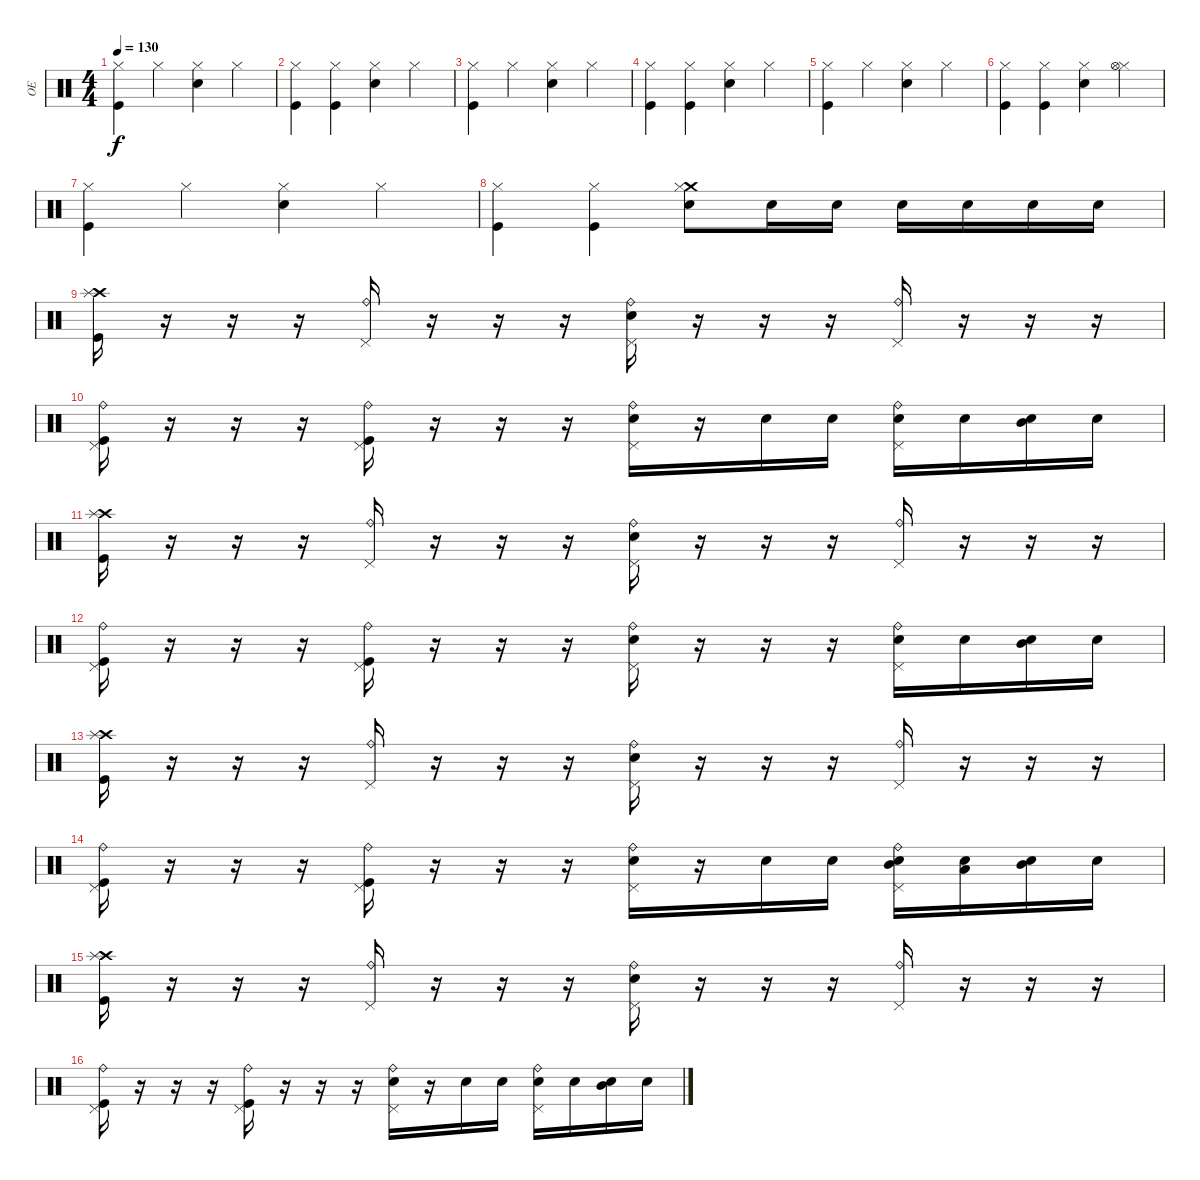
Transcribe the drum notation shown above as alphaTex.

\track ("OE" "OE") {instrument percussion}
\staff {score}
\articulation defaults
\ts (4 4)
\tempo 130
\clef neutral
\ks c
("Kick (hit)" "Hi-Hat (closed)").4{dy f} "Hi-Hat (closed)".4 ("Snare (hit) 2" "Hi-Hat (closed)").4 "Hi-Hat (closed)".4 |
("Kick (hit)" "Hi-Hat (closed)").4 ("Kick (hit)" "Hi-Hat (closed)").4 ("Snare (hit) 2" "Hi-Hat (closed)").4 "Hi-Hat (closed)".4 |
("Kick (hit)" "Hi-Hat (closed)").4 "Hi-Hat (closed)".4 ("Snare (hit) 2" "Hi-Hat (closed)").4 "Hi-Hat (closed)".4 |
("Kick (hit)" "Hi-Hat (closed)").4 ("Kick (hit)" "Hi-Hat (closed)").4 ("Snare (hit) 2" "Hi-Hat (closed)").4 "Hi-Hat (closed)".4 |
("Kick (hit)" "Hi-Hat (closed)").4 "Hi-Hat (closed)".4 ("Snare (hit) 2" "Hi-Hat (closed)").4 "Hi-Hat (closed)".4 |
("Kick (hit)" "Hi-Hat (closed)").4 ("Kick (hit)" "Hi-Hat (closed)").4 ("Snare (hit) 2" "Hi-Hat (closed)").4 ("Hi-Hat (closed)" "Hi-Hat (open)").4 |
("Kick (hit)" "Hi-Hat (closed)").4 "Hi-Hat (closed)".4 ("Snare (hit) 2" "Hi-Hat (closed)").4 "Hi-Hat (closed)".4 |
("Kick (hit)" "Hi-Hat (closed)").4 ("Kick (hit)" "Hi-Hat (closed)").4 ("Snare (hit) 2" "Crash medium (hit)" "Hi-Hat (closed)").8 "Snare (hit) 2".16 "Snare (hit) 2".16 "Snare (hit) 2".16 "Snare (hit) 2".16 "Snare (hit) 2".16 "Snare (hit) 2".16 |
("Crash high (hit)" "Kick (hit)" "Splash (hit)").16 r.16 r.16 r.16 ("Pedal Hi-Hat (hit)" "Ride (bell)").16 r.16 r.16 r.16 ("Pedal Hi-Hat (hit)" "Ride (bell)" "Snare (hit) 2").16 r.16 r.16 r.16 ("Pedal Hi-Hat (hit)" "Ride (bell)").16 r.16 r.16 r.16 |
("Pedal Hi-Hat (hit)" "Ride (bell)" "Kick (hit)").16 r.16 r.16 r.16 ("Pedal Hi-Hat (hit)" "Kick (hit)" "Ride (bell)").16 r.16 r.16 r.16 ("Pedal Hi-Hat (hit)" "Snare (hit) 2" "Ride (bell)").16 r.16 "Snare (hit) 2".16 "Snare (hit) 2".16 ("Pedal Hi-Hat (hit)" "Ride (bell)" "Snare (hit) 2").16 "Snare (hit) 2".16 ("Snare (hit) 2" "Mid Tom (hit)").16 "Snare (hit) 2".16 |
("Crash high (hit)" "Kick (hit)" "Splash (hit)").16 r.16 r.16 r.16 ("Pedal Hi-Hat (hit)" "Ride (bell)").16 r.16 r.16 r.16 ("Pedal Hi-Hat (hit)" "Ride (bell)" "Snare (hit) 2").16 r.16 r.16 r.16 ("Pedal Hi-Hat (hit)" "Ride (bell)").16 r.16 r.16 r.16 |
("Pedal Hi-Hat (hit)" "Ride (bell)" "Kick (hit)").16 r.16 r.16 r.16 ("Pedal Hi-Hat (hit)" "Kick (hit)" "Ride (bell)").16 r.16 r.16 r.16 ("Pedal Hi-Hat (hit)" "Snare (hit) 2" "Ride (bell)").16 r.16 r.16 r.16 ("Pedal Hi-Hat (hit)" "Ride (bell)" "Snare (hit) 2").16 "Snare (hit) 2".16 ("Snare (hit) 2" "Mid Tom (hit)").16 "Snare (hit) 2".16 |
("Crash high (hit)" "Kick (hit)" "Splash (hit)").16 r.16 r.16 r.16 ("Pedal Hi-Hat (hit)" "Ride (bell)").16 r.16 r.16 r.16 ("Pedal Hi-Hat (hit)" "Ride (bell)" "Snare (hit) 2").16 r.16 r.16 r.16 ("Pedal Hi-Hat (hit)" "Ride (bell)").16 r.16 r.16 r.16 |
("Pedal Hi-Hat (hit)" "Ride (bell)" "Kick (hit)").16 r.16 r.16 r.16 ("Pedal Hi-Hat (hit)" "Kick (hit)" "Ride (bell)").16 r.16 r.16 r.16 ("Pedal Hi-Hat (hit)" "Snare (hit) 2" "Ride (bell)").16 r.16 "Snare (hit) 2".16 "Snare (hit) 2".16 ("Pedal Hi-Hat (hit)" "Ride (bell)" "Snare (hit) 2" "Mid Tom (hit)").16 ("Snare (hit) 2" "Low Tom (hit)").16 ("Snare (hit) 2" "Mid Tom (hit)").16 "Snare (hit) 2".16 |
("Crash high (hit)" "Kick (hit)" "Splash (hit)").16 r.16 r.16 r.16 ("Pedal Hi-Hat (hit)" "Ride (bell)").16 r.16 r.16 r.16 ("Pedal Hi-Hat (hit)" "Ride (bell)" "Snare (hit) 2").16 r.16 r.16 r.16 ("Pedal Hi-Hat (hit)" "Ride (bell)").16 r.16 r.16 r.16 |
("Pedal Hi-Hat (hit)" "Ride (bell)" "Kick (hit)").16 r.16 r.16 r.16 ("Pedal Hi-Hat (hit)" "Kick (hit)" "Ride (bell)").16 r.16 r.16 r.16 ("Pedal Hi-Hat (hit)" "Snare (hit) 2" "Ride (bell)").16 r.16 "Snare (hit) 2".16 "Snare (hit) 2".16 ("Pedal Hi-Hat (hit)" "Ride (bell)" "Snare (hit) 2").16 "Snare (hit) 2".16 ("Snare (hit) 2" "Mid Tom (hit)").16 "Snare (hit) 2".16
